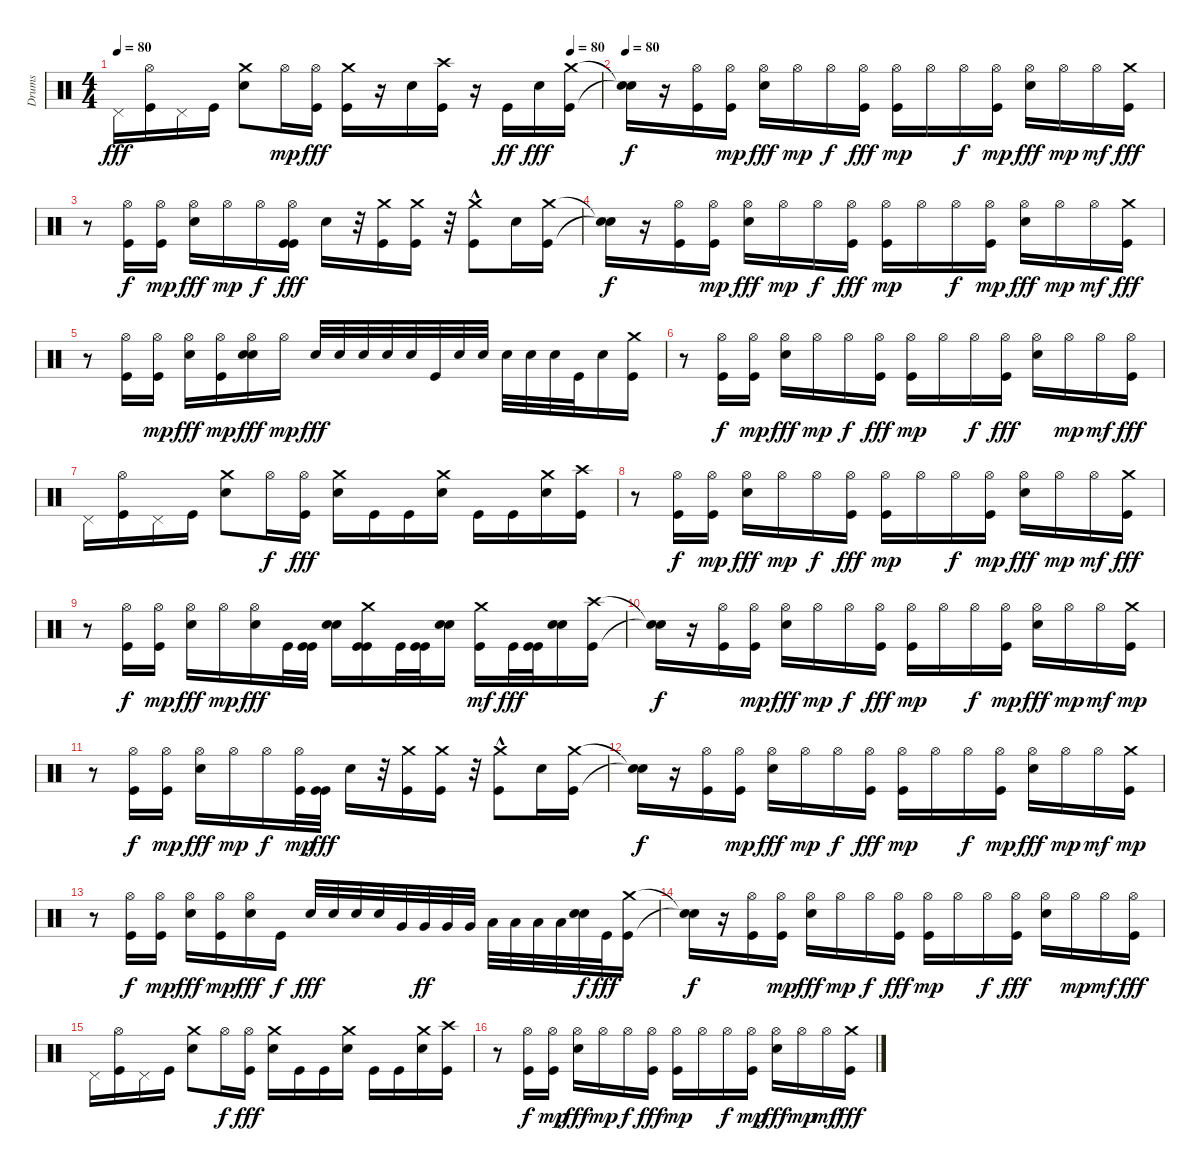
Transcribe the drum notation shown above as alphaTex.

\track ("Drums" "Drums") {instrument percussion}
\staff {score}
\articulation defaults
\ts (4 4)
\tempo 80
\tempo (80 0.9375)
\clef neutral
\ks c "Pedal Hi-Hat (hit)".16{dy fff}
("Kick (hit)" "Hi-Hat (open)").16 "Pedal Hi-Hat (hit)".16 "Kick (hit)".16 ("Crash medium (hit)" "Electric Snare (hit)").8 "Hi-Hat (open)".16{dy mp} ("Hi-Hat (open)" "Kick (hit)").16{dy fff} ("Crash medium (hit)" "Kick (hit)").16 r.16 "Electric Snare (hit)".16 ("Kick (hit)" "Crash high (hit)").16 r.16 "Kick (hit)".16{dy ff} "Electric Snare (hit)".16{dy fff} ("Crash medium (hit)" "Kick (hit)").16 |
\tempo 80
("Snare (hit)"{t} "Snare (hit)"{t}).16{dy f} r.16 ("Hi-Hat (open)" "Kick (hit)").16 ("Hi-Hat (open)" "Kick (hit)").16{dy mp} ("Hi-Hat (open)" "Electric Snare (hit)").16{dy fff} "Hi-Hat (open)".16{dy mp} "Hi-Hat (open)".16{dy f} ("Hi-Hat (open)" "Kick (hit)").16{dy fff} ("Kick (hit)" "Hi-Hat (open)").16{dy mp} "Hi-Hat (open)".16 "Hi-Hat (open)".16{dy f} ("Kick (hit)" "Hi-Hat (open)").16{dy mp} ("Electric Snare (hit)" "Hi-Hat (open)").16{dy fff} "Hi-Hat (open)".16{dy mp} "Hi-Hat (open)".16{dy mf} ("Kick (hit)" "Crash medium (hit)").16{dy fff} |
r.8 ("Hi-Hat (open)" "Kick (hit)").16{dy f} ("Hi-Hat (open)" "Kick (hit)").16{dy mp} ("Hi-Hat (open)" "Electric Snare (hit)").16{dy fff} "Hi-Hat (open)".16{dy mp} "Hi-Hat (open)".16{dy f} ("Kick (hit)" "Hi-Hat (open)" "Kick (hit)").16{dy fff} "Electric Snare (hit)".16 r.32 ("Crash medium (hit)" "Kick (hit)").16 ("Crash medium (hit)" "Kick (hit)").16 r.32 ("Crash medium (hit)"{hac} "Kick (hit)"{hac}).8 "Electric Snare (hit)".16 ("Crash medium (hit)" "Kick (hit)").16 |
("Snare (hit)"{t} "Snare (hit)"{t}).16{dy f} r.16 ("Hi-Hat (open)" "Kick (hit)").16 ("Hi-Hat (open)" "Kick (hit)").16{dy mp} ("Hi-Hat (open)" "Electric Snare (hit)").16{dy fff} "Hi-Hat (open)".16{dy mp} "Hi-Hat (open)".16{dy f} ("Hi-Hat (open)" "Kick (hit)").16{dy fff} ("Kick (hit)" "Hi-Hat (open)").16{dy mp} "Hi-Hat (open)".16 "Hi-Hat (open)".16{dy f} ("Kick (hit)" "Hi-Hat (open)").16{dy mp} ("Electric Snare (hit)" "Hi-Hat (open)").16{dy fff} "Hi-Hat (open)".16{dy mp} "Hi-Hat (open)".16{dy mf} ("Kick (hit)" "Crash medium (hit)").16{dy fff} |
r.8 ("Kick (hit)" "Hi-Hat (open)").16 ("Kick (hit)" "Hi-Hat (open)").16{dy mp} ("Electric Snare (hit)" "Hi-Hat (open)").16{dy fff} ("Kick (hit)" "Hi-Hat (open)").16{dy mp} ("Electric Snare (hit)" "Electric Snare (hit)" "Hi-Hat (open)").16{dy fff} "Hi-Hat (open)".16{dy mp} "Electric Snare (hit)".32{dy fff} "Electric Snare (hit)".32 "Electric Snare (hit)".32 "Electric Snare (hit)".32 "Electric Snare (hit)".32 "Kick (hit)".32 "Electric Snare (hit)".32 "Electric Snare (hit)".32 "Electric Snare (hit)".32 "Electric Snare (hit)".32 "Electric Snare (hit)".32 "Kick (hit)".32 "Electric Snare (hit)".16 ("Kick (hit)" "Crash medium (hit)").16 |
r.8 ("Hi-Hat (open)" "Kick (hit)").16{dy f} ("Hi-Hat (open)" "Kick (hit)").16{dy mp} ("Hi-Hat (open)" "Electric Snare (hit)").16{dy fff} "Hi-Hat (open)".16{dy mp} "Hi-Hat (open)".16{dy f} ("Hi-Hat (open)" "Kick (hit)").16{dy fff} ("Kick (hit)" "Hi-Hat (open)").16{dy mp} "Hi-Hat (open)".16 "Hi-Hat (open)".16{dy f} ("Hi-Hat (open)" "Kick (hit)").16{dy fff} ("Electric Snare (hit)" "Hi-Hat (open)").16 "Hi-Hat (open)".16{dy mp} "Hi-Hat (open)".16{dy mf} ("Hi-Hat (open)" "Kick (hit)").16{dy fff} |
"Pedal Hi-Hat (hit)".16 ("Hi-Hat (open)" "Kick (hit)").16 "Pedal Hi-Hat (hit)".16 "Kick (hit)".16 ("Electric Snare (hit)" "Crash medium (hit)").8 "Hi-Hat (open)".16{dy f} ("Hi-Hat (open)" "Kick (hit)").16{dy fff} ("Crash medium (hit)" "Electric Snare (hit)").16 "Kick (hit)".16 "Kick (hit)".16 ("Crash medium (hit)" "Electric Snare (hit)").16 "Kick (hit)".16 "Kick (hit)".16 ("Crash medium (hit)" "Electric Snare (hit)").16 ("Crash high (hit)" "Kick (hit)").16 |
r.8 ("Hi-Hat (open)" "Kick (hit)").16{dy f} ("Hi-Hat (open)" "Kick (hit)").16{dy mp} ("Hi-Hat (open)" "Electric Snare (hit)").16{dy fff} "Hi-Hat (open)".16{dy mp} "Hi-Hat (open)".16{dy f} ("Hi-Hat (open)" "Kick (hit)").16{dy fff} ("Kick (hit)" "Hi-Hat (open)").16{dy mp} "Hi-Hat (open)".16 "Hi-Hat (open)".16{dy f} ("Kick (hit)" "Hi-Hat (open)").16{dy mp} ("Electric Snare (hit)" "Hi-Hat (open)").16{dy fff} "Hi-Hat (open)".16{dy mp} "Hi-Hat (open)".16{dy mf} ("Kick (hit)" "Crash medium (hit)").16{dy fff} |
r.8 ("Hi-Hat (open)" "Kick (hit)").16{dy f} ("Hi-Hat (open)" "Kick (hit)").16{dy mp} ("Hi-Hat (open)" "Electric Snare (hit)").16{dy fff} "Hi-Hat (open)".16{dy mp} ("Electric Snare (hit)" "Hi-Hat (open)").16{dy fff} "Kick (hit)".32 ("Kick (hit)" "Kick (hit)").32 ("Electric Snare (hit)" "Electric Snare (hit)").16 ("Kick (hit)" "Crash medium (hit)" "Kick (hit)").16 "Kick (hit)".32 ("Kick (hit)" "Kick (hit)").32 ("Electric Snare (hit)" "Electric Snare (hit)").16 ("Kick (hit)" "Crash medium (hit)").16{dy mf} "Kick (hit)".32{dy fff} ("Kick (hit)" "Kick (hit)").32 ("Electric Snare (hit)" "Electric Snare (hit)").16 ("Crash high (hit)" "Kick (hit)").16 |
("Snare (hit)"{t} "Snare (hit)"{t}).16{dy f} r.16 ("Hi-Hat (open)" "Kick (hit)").16 ("Hi-Hat (open)" "Kick (hit)").16{dy mp} ("Hi-Hat (open)" "Electric Snare (hit)").16{dy fff} "Hi-Hat (open)".16{dy mp} "Hi-Hat (open)".16{dy f} ("Hi-Hat (open)" "Kick (hit)").16{dy fff} ("Kick (hit)" "Hi-Hat (open)").16{dy mp} "Hi-Hat (open)".16 "Hi-Hat (open)".16{dy f} ("Kick (hit)" "Hi-Hat (open)").16{dy mp} ("Electric Snare (hit)" "Hi-Hat (open)").16{dy fff} "Hi-Hat (open)".16{dy mp} "Hi-Hat (open)".16{dy mf} ("Kick (hit)" "Crash medium (hit)").16{dy mp} |
r.8 ("Hi-Hat (open)" "Kick (hit)").16{dy f} ("Hi-Hat (open)" "Kick (hit)").16{dy mp} ("Hi-Hat (open)" "Electric Snare (hit)").16{dy fff} "Hi-Hat (open)".16{dy mp} "Hi-Hat (open)".16{dy f} ("Kick (hit)" "Hi-Hat (open)").32{dy mp} ("Kick (hit)" "Kick (hit)").32{dy fff} "Electric Snare (hit)".16 r.32 ("Crash medium (hit)" "Kick (hit)").16 ("Crash medium (hit)" "Kick (hit)").16 r.32 ("Crash medium (hit)"{hac} "Kick (hit)"{hac}).8 "Electric Snare (hit)".16 ("Crash medium (hit)" "Kick (hit)").16 |
("Snare (hit)"{t} "Snare (hit)"{t}).16{dy f} r.16 ("Hi-Hat (open)" "Kick (hit)").16 ("Hi-Hat (open)" "Kick (hit)").16{dy mp} ("Hi-Hat (open)" "Electric Snare (hit)").16{dy fff} "Hi-Hat (open)".16{dy mp} "Hi-Hat (open)".16{dy f} ("Hi-Hat (open)" "Kick (hit)").16{dy fff} ("Kick (hit)" "Hi-Hat (open)").16{dy mp} "Hi-Hat (open)".16 "Hi-Hat (open)".16{dy f} ("Kick (hit)" "Hi-Hat (open)").16{dy mp} ("Electric Snare (hit)" "Hi-Hat (open)").16{dy fff} "Hi-Hat (open)".16{dy mp} "Hi-Hat (open)".16{dy mf} ("Kick (hit)" "Crash medium (hit)").16{dy mp} |
r.8 ("Hi-Hat (open)" "Kick (hit)").16{dy f} ("Hi-Hat (open)" "Kick (hit)").16{dy mp} ("Hi-Hat (open)" "Electric Snare (hit)").16{dy fff} ("Kick (hit)" "Hi-Hat (open)").16{dy mp} ("Electric Snare (hit)" "Hi-Hat (open)").16{dy fff} "Kick (hit)".16{dy f} "Electric Snare (hit)".32{dy fff} "Electric Snare (hit)".32 "Electric Snare (hit)".32 "Electric Snare (hit)".32 "Very Low Tom (hit)".32 "Very Low Tom (hit)".32{dy ff} "Very Low Tom (hit)".32 "Very Low Tom (hit)".32 "Low Floor Tom (hit)".32 "Low Floor Tom (hit)".32 "Low Floor Tom (hit)".32 "Low Floor Tom (hit)".32 ("Electric Snare (hit)" "Electric Snare (hit)").32{dy f} "Kick (hit)".32{dy fff} ("Kick (hit)" "Crash medium (hit)").16 |
("Snare (hit)"{t} "Snare (hit)"{t}).16{dy f} r.16 ("Hi-Hat (open)" "Kick (hit)").16 ("Hi-Hat (open)" "Kick (hit)").16{dy mp} ("Hi-Hat (open)" "Electric Snare (hit)").16{dy fff} "Hi-Hat (open)".16{dy mp} "Hi-Hat (open)".16{dy f} ("Hi-Hat (open)" "Kick (hit)").16{dy fff} ("Kick (hit)" "Hi-Hat (open)").16{dy mp} "Hi-Hat (open)".16 "Hi-Hat (open)".16{dy f} ("Hi-Hat (open)" "Kick (hit)").16{dy fff} ("Electric Snare (hit)" "Hi-Hat (open)").16 "Hi-Hat (open)".16{dy mp} "Hi-Hat (open)".16{dy mf} ("Hi-Hat (open)" "Kick (hit)").16{dy fff} |
"Pedal Hi-Hat (hit)".16 ("Hi-Hat (open)" "Kick (hit)").16 "Pedal Hi-Hat (hit)".16 "Kick (hit)".16 ("Electric Snare (hit)" "Crash medium (hit)").8 "Hi-Hat (open)".16{dy f} ("Hi-Hat (open)" "Kick (hit)").16{dy fff} ("Crash medium (hit)" "Electric Snare (hit)").16 "Kick (hit)".16 "Kick (hit)".16 ("Crash medium (hit)" "Electric Snare (hit)").16 "Kick (hit)".16 "Kick (hit)".16 ("Crash medium (hit)" "Electric Snare (hit)").16 ("Crash high (hit)" "Kick (hit)").16 |
r.8 ("Hi-Hat (open)" "Kick (hit)").16{dy f} ("Hi-Hat (open)" "Kick (hit)").16{dy mp} ("Hi-Hat (open)" "Electric Snare (hit)").16{dy fff} "Hi-Hat (open)".16{dy mp} "Hi-Hat (open)".16{dy f} ("Hi-Hat (open)" "Kick (hit)").16{dy fff} ("Kick (hit)" "Hi-Hat (open)").16{dy mp} "Hi-Hat (open)".16 "Hi-Hat (open)".16{dy f} ("Kick (hit)" "Hi-Hat (open)").16{dy mp} ("Electric Snare (hit)" "Hi-Hat (open)").16{dy fff} "Hi-Hat (open)".16{dy mp} "Hi-Hat (open)".16{dy mf} ("Kick (hit)" "Crash medium (hit)").16{dy fff}
